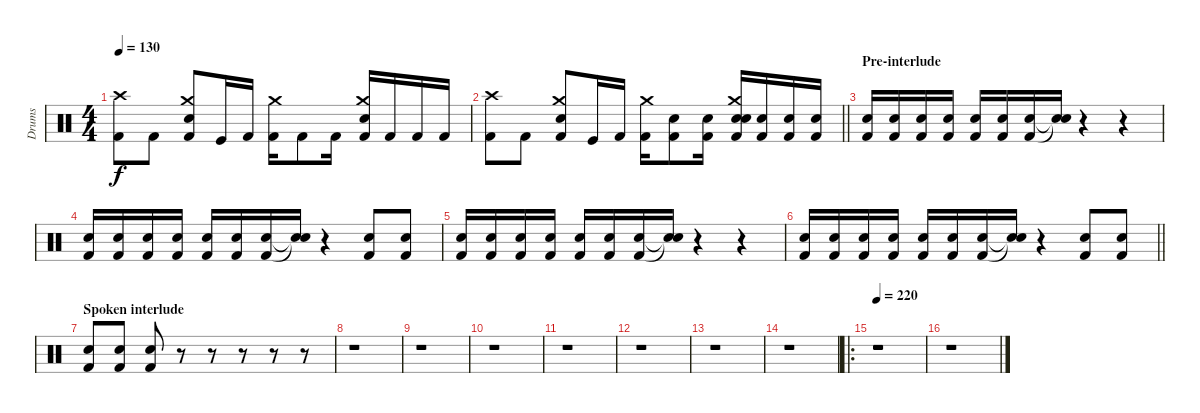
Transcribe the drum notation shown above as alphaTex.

\track ("Drums" "Drums") {instrument percussion}
\staff {score}
\articulation defaults
\ts (4 4)
\tempo 130
\clef neutral
\ks c
("Crash high (hit)" "Kick (hit) 2").8{dy f} "Kick (hit) 2".8 ("Crash medium (hit)" "Electric Snare (hit)" "Kick (hit) 2").8 "Kick (hit)".16 "Kick (hit) 2".16 ("Crash medium (hit)" "Kick (hit) 2").16 "Kick (hit) 2".8 "Kick (hit) 2".16 ("Crash medium (hit)" "Electric Snare (hit)" "Kick (hit) 2").16 "Kick (hit) 2".16 "Kick (hit) 2".16 "Kick (hit) 2".16 |
\barLineRight lightlight
("Crash high (hit)" "Kick (hit) 2").8 "Kick (hit) 2".8 ("Crash medium (hit)" "Electric Snare (hit)" "Kick (hit) 2").8 "Kick (hit)".16 "Kick (hit) 2".16 ("Crash medium (hit)" "Kick (hit) 2").16 ("Electric Snare (hit)" "Kick (hit) 2").8 ("Electric Snare (hit)" "Kick (hit) 2").16 ("Crash medium (hit)" "Electric Snare (hit)" "Electric Snare (hit)" "Kick (hit) 2").16 ("Electric Snare (hit)" "Kick (hit) 2").16 ("Electric Snare (hit)" "Kick (hit) 2").16 ("Electric Snare (hit)" "Kick (hit) 2").16 |
\section ("" "Pre-interlude")
("Electric Snare (hit)" "Kick (hit) 2").16 ("Electric Snare (hit)" "Kick (hit) 2").16 ("Electric Snare (hit)" "Kick (hit) 2").16 ("Electric Snare (hit)" "Kick (hit) 2").16 ("Electric Snare (hit)" "Kick (hit) 2").16 ("Electric Snare (hit)" "Kick (hit) 2").16 ("Electric Snare (hit)" "Kick (hit) 2").16 ("Snare (hit)"{t} "Snare (hit)"{t}).16 r.4 r.4 |
("Electric Snare (hit)" "Kick (hit) 2").16 ("Electric Snare (hit)" "Kick (hit) 2").16 ("Electric Snare (hit)" "Kick (hit) 2").16 ("Electric Snare (hit)" "Kick (hit) 2").16 ("Electric Snare (hit)" "Kick (hit) 2").16 ("Electric Snare (hit)" "Kick (hit) 2").16 ("Electric Snare (hit)" "Kick (hit) 2").16 ("Snare (hit)"{t} "Snare (hit)"{t}).16 r.4 ("Electric Snare (hit)" "Kick (hit) 2").8 ("Electric Snare (hit)" "Kick (hit) 2").8 |
("Electric Snare (hit)" "Kick (hit) 2").16 ("Electric Snare (hit)" "Kick (hit) 2").16 ("Electric Snare (hit)" "Kick (hit) 2").16 ("Electric Snare (hit)" "Kick (hit) 2").16 ("Electric Snare (hit)" "Kick (hit) 2").16 ("Electric Snare (hit)" "Kick (hit) 2").16 ("Electric Snare (hit)" "Kick (hit) 2").16 ("Snare (hit)"{t} "Snare (hit)"{t}).16 r.4 r.4 |
\barLineRight lightlight
("Electric Snare (hit)" "Kick (hit) 2").16 ("Electric Snare (hit)" "Kick (hit) 2").16 ("Electric Snare (hit)" "Kick (hit) 2").16 ("Electric Snare (hit)" "Kick (hit) 2").16 ("Electric Snare (hit)" "Kick (hit) 2").16 ("Electric Snare (hit)" "Kick (hit) 2").16 ("Electric Snare (hit)" "Kick (hit) 2").16 ("Snare (hit)"{t} "Snare (hit)"{t}).16 r.4 ("Electric Snare (hit)" "Kick (hit) 2").8 ("Electric Snare (hit)" "Kick (hit) 2").8 |
\section ("" "Spoken interlude")
("Electric Snare (hit)" "Kick (hit) 2").8 ("Electric Snare (hit)" "Kick (hit) 2").8 ("Electric Snare (hit)" "Kick (hit) 2").8 r.8 r.8 r.8 r.8 r.8 |
r.1 |
r.1 |
r.1 |
r.1 |
r.1 |
r.1 |
r.1 |
\ro
\tempo 220
r.1 |
r.1
